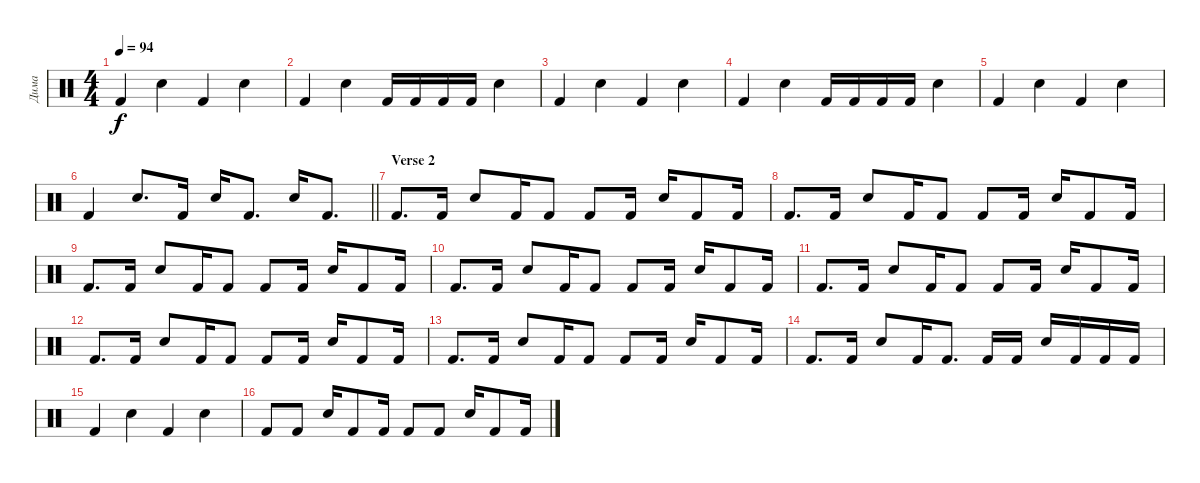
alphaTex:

\track ("Дима" "Дима") {instrument percussion}
\staff {score}
\articulation defaults
\ts (4 4)
\tempo 94
\clef neutral
\ks c "Kick (hit) 2".4{dy f} "Snare (hit) 2".4 "Kick (hit) 2".4 "Snare (hit) 2".4
|
"Kick (hit) 2".4 "Snare (hit) 2".4 "Kick (hit) 2".16 "Kick (hit) 2".16 "Kick (hit) 2".16 "Kick (hit) 2".16 "Snare (hit) 2".4 |
"Kick (hit) 2".4 "Snare (hit) 2".4 "Kick (hit) 2".4 "Snare (hit) 2".4 |
"Kick (hit) 2".4 "Snare (hit) 2".4 "Kick (hit) 2".16 "Kick (hit) 2".16 "Kick (hit) 2".16 "Kick (hit) 2".16 "Snare (hit) 2".4 |
"Kick (hit) 2".4 "Snare (hit) 2".4 "Kick (hit) 2".4 "Snare (hit) 2".4 |
\barLineRight lightlight "Kick (hit) 2".4 "Snare (hit) 2".8{d} "Kick (hit) 2".16 "Snare (hit) 2".16 "Kick (hit) 2".8{d} "Snare (hit) 2".16 "Kick (hit) 2".8{d}
|
\section ("" "Verse 2")
"Kick (hit) 2".8{d} "Kick (hit) 2".16 "Snare (hit) 2".8 "Kick (hit) 2".16 "Kick (hit) 2".8 "Kick (hit) 2".8 "Kick (hit) 2".16 "Snare (hit) 2".16 "Kick (hit) 2".8 "Kick (hit) 2".16 |
"Kick (hit) 2".8{d} "Kick (hit) 2".16 "Snare (hit) 2".8 "Kick (hit) 2".16 "Kick (hit) 2".8 "Kick (hit) 2".8 "Kick (hit) 2".16 "Snare (hit) 2".16 "Kick (hit) 2".8 "Kick (hit) 2".16 |
"Kick (hit) 2".8{d} "Kick (hit) 2".16 "Snare (hit) 2".8 "Kick (hit) 2".16 "Kick (hit) 2".8 "Kick (hit) 2".8 "Kick (hit) 2".16 "Snare (hit) 2".16 "Kick (hit) 2".8 "Kick (hit) 2".16 |
"Kick (hit) 2".8{d} "Kick (hit) 2".16 "Snare (hit) 2".8 "Kick (hit) 2".16 "Kick (hit) 2".8 "Kick (hit) 2".8 "Kick (hit) 2".16 "Snare (hit) 2".16 "Kick (hit) 2".8 "Kick (hit) 2".16 |
"Kick (hit) 2".8{d} "Kick (hit) 2".16 "Snare (hit) 2".8 "Kick (hit) 2".16 "Kick (hit) 2".8 "Kick (hit) 2".8 "Kick (hit) 2".16 "Snare (hit) 2".16 "Kick (hit) 2".8 "Kick (hit) 2".16 |
"Kick (hit) 2".8{d} "Kick (hit) 2".16 "Snare (hit) 2".8 "Kick (hit) 2".16 "Kick (hit) 2".8 "Kick (hit) 2".8 "Kick (hit) 2".16 "Snare (hit) 2".16 "Kick (hit) 2".8 "Kick (hit) 2".16 |
"Kick (hit) 2".8{d} "Kick (hit) 2".16 "Snare (hit) 2".8 "Kick (hit) 2".16 "Kick (hit) 2".8 "Kick (hit) 2".8 "Kick (hit) 2".16 "Snare (hit) 2".16 "Kick (hit) 2".8 "Kick (hit) 2".16 |
"Kick (hit) 2".8{d} "Kick (hit) 2".16 "Snare (hit) 2".8 "Kick (hit) 2".16 "Kick (hit) 2".8{d} "Kick (hit) 2".16 "Kick (hit) 2".16 "Snare (hit) 2".16 "Kick (hit) 2".16 "Kick (hit) 2".16 "Kick (hit) 2".16 |
"Kick (hit) 2".4 "Snare (hit) 2".4 "Kick (hit) 2".4 "Snare (hit) 2".4 |
"Kick (hit) 2".8 "Kick (hit) 2".8 "Snare (hit) 2".16 "Kick (hit) 2".8 "Kick (hit) 2".16 "Kick (hit) 2".8 "Kick (hit) 2".8 "Snare (hit) 2".16 "Kick (hit) 2".8 "Kick (hit) 2".16
